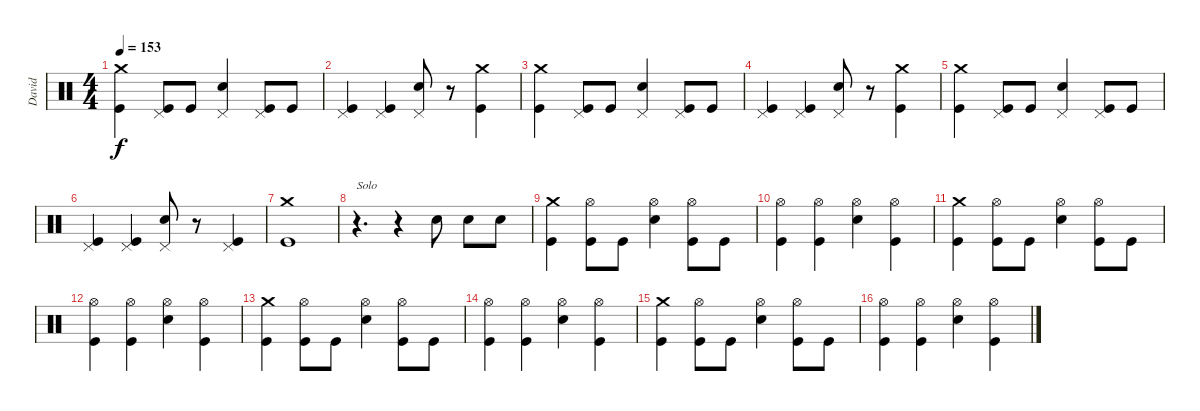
\track ("David" "David") {instrument percussion}
\staff {score}
\articulation defaults
\ts (4 4)
\tempo 153
\clef neutral
\ks c
("Crash medium (hit)" "Kick (hit)").4{dy f} ("Pedal Hi-Hat (hit)" "Kick (hit)").8 "Kick (hit)".8 ("Pedal Hi-Hat (hit)" "Snare (hit) 2").4 ("Pedal Hi-Hat (hit)" "Kick (hit)").8 "Kick (hit)".8 |
("Pedal Hi-Hat (hit)" "Kick (hit)").4 ("Pedal Hi-Hat (hit)" "Kick (hit)").4 ("Pedal Hi-Hat (hit)" "Snare (hit) 2").8 r.8 ("Crash medium (hit)" "Kick (hit)").4 |
("Crash medium (hit)" "Kick (hit)").4 ("Pedal Hi-Hat (hit)" "Kick (hit)").8 "Kick (hit)".8 ("Pedal Hi-Hat (hit)" "Snare (hit) 2").4 ("Pedal Hi-Hat (hit)" "Kick (hit)").8 "Kick (hit)".8 |
("Pedal Hi-Hat (hit)" "Kick (hit)").4 ("Pedal Hi-Hat (hit)" "Kick (hit)").4 ("Pedal Hi-Hat (hit)" "Snare (hit) 2").8 r.8 ("Crash medium (hit)" "Kick (hit)").4 |
("Crash medium (hit)" "Kick (hit)").4 ("Pedal Hi-Hat (hit)" "Kick (hit)").8 "Kick (hit)".8 ("Pedal Hi-Hat (hit)" "Snare (hit) 2").4 ("Pedal Hi-Hat (hit)" "Kick (hit)").8 "Kick (hit)".8 |
("Pedal Hi-Hat (hit)" "Kick (hit)").4 ("Pedal Hi-Hat (hit)" "Kick (hit)").4 ("Pedal Hi-Hat (hit)" "Snare (hit) 2").8 r.8 ("Pedal Hi-Hat (hit)" "Kick (hit)").4 |
("Crash medium (hit)" "Kick (hit)").1 |
r.4{d txt "Solo"} r.4 "Snare (hit) 2".8 "Snare (hit) 2".8 "Snare (hit) 2".8 |
("Crash medium (hit)" "Kick (hit)").4 ("Hi-Hat (open)" "Kick (hit)").8 "Kick (hit)".8 ("Hi-Hat (open)" "Snare (hit) 2").4 ("Hi-Hat (open)" "Kick (hit)").8 "Kick (hit)".8 |
("Hi-Hat (open)" "Kick (hit)").4 ("Hi-Hat (open)" "Kick (hit)").4 ("Hi-Hat (open)" "Snare (hit) 2").4 ("Hi-Hat (open)" "Kick (hit)").4 |
("Crash medium (hit)" "Kick (hit)").4 ("Hi-Hat (open)" "Kick (hit)").8 "Kick (hit)".8 ("Hi-Hat (open)" "Snare (hit) 2").4 ("Hi-Hat (open)" "Kick (hit)").8 "Kick (hit)".8 |
("Hi-Hat (open)" "Kick (hit)").4 ("Hi-Hat (open)" "Kick (hit)").4 ("Hi-Hat (open)" "Snare (hit) 2").4 ("Hi-Hat (open)" "Kick (hit)").4 |
("Crash medium (hit)" "Kick (hit)").4 ("Hi-Hat (open)" "Kick (hit)").8 "Kick (hit)".8 ("Hi-Hat (open)" "Snare (hit) 2").4 ("Hi-Hat (open)" "Kick (hit)").8 "Kick (hit)".8 |
("Hi-Hat (open)" "Kick (hit)").4 ("Hi-Hat (open)" "Kick (hit)").4 ("Hi-Hat (open)" "Snare (hit) 2").4 ("Hi-Hat (open)" "Kick (hit)").4 |
("Crash medium (hit)" "Kick (hit)").4 ("Hi-Hat (open)" "Kick (hit)").8 "Kick (hit)".8 ("Hi-Hat (open)" "Snare (hit) 2").4 ("Hi-Hat (open)" "Kick (hit)").8 "Kick (hit)".8 |
("Hi-Hat (open)" "Kick (hit)").4 ("Hi-Hat (open)" "Kick (hit)").4 ("Hi-Hat (open)" "Snare (hit) 2").4 ("Hi-Hat (open)" "Kick (hit)").4
